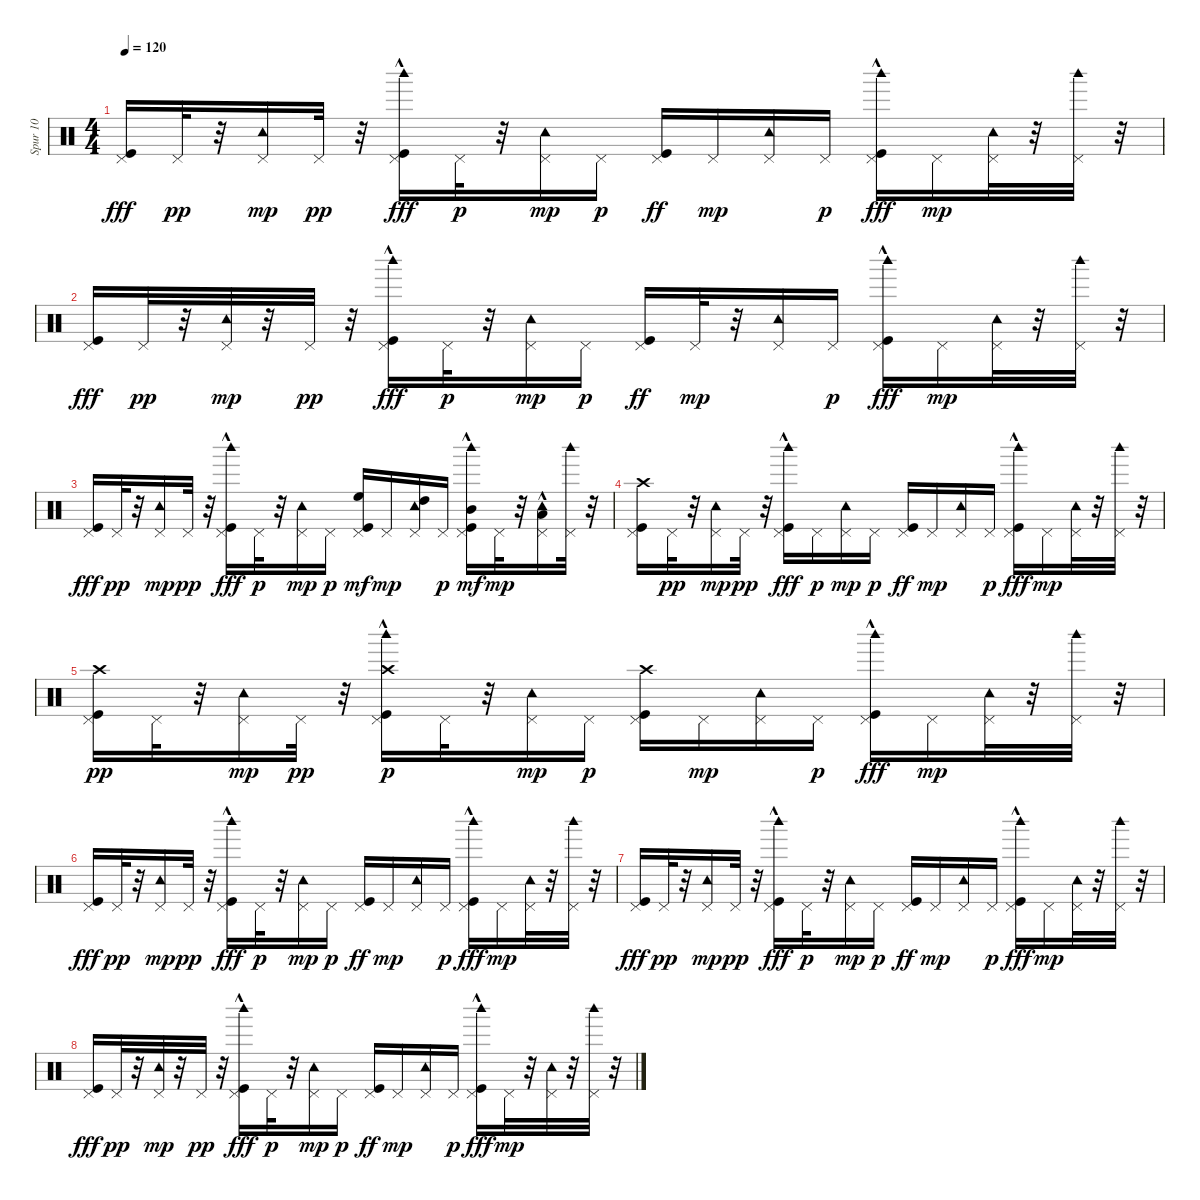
\track ("Spur 10" "Spur 10") {instrument percussion}
\staff {score}
\articulation defaults
\ts (4 4)
\tempo 120
\clef neutral
\ks c
("Pedal Hi-Hat (hit)" "Kick (hit)").16{dy fff} "Pedal Hi-Hat (hit)".32{dy pp} r.32 ("Pedal Hi-Hat (hit)" "Tambourine (hit)").16{dy mp} "Pedal Hi-Hat (hit)".32{dy pp} r.32 ("Kick (hit)" "Pedal Hi-Hat (hit)" "Woodblock high (hit)"{hac}).16{dy fff} "Pedal Hi-Hat (hit)".32{dy p} r.32 ("Pedal Hi-Hat (hit)" "Tambourine (hit)").16{dy mp} "Pedal Hi-Hat (hit)".16{dy p} ("Kick (hit)" "Pedal Hi-Hat (hit)").16{dy ff} "Pedal Hi-Hat (hit)".16{dy mp} ("Pedal Hi-Hat (hit)" "Tambourine (hit)").16 "Pedal Hi-Hat (hit)".16{dy p} ("Kick (hit)"{hac} "Pedal Hi-Hat (hit)" "Woodblock high (hit)").16{dy fff} "Pedal Hi-Hat (hit)".16{dy mp} ("Pedal Hi-Hat (hit)" "Tambourine (hit)").32 r.32 ("Pedal Hi-Hat (hit)" "Woodblock high (hit)").32 r.32 |
("Pedal Hi-Hat (hit)" "Kick (hit)").16{dy fff} "Pedal Hi-Hat (hit)".32{dy pp} r.32 ("Pedal Hi-Hat (hit)" "Tambourine (hit)").32{dy mp} r.32 "Pedal Hi-Hat (hit)".32{dy pp} r.32 ("Kick (hit)" "Pedal Hi-Hat (hit)" "Woodblock high (hit)"{hac}).16{dy fff} "Pedal Hi-Hat (hit)".32{dy p} r.32 ("Pedal Hi-Hat (hit)" "Tambourine (hit)").16{dy mp} "Pedal Hi-Hat (hit)".16{dy p} ("Kick (hit)" "Pedal Hi-Hat (hit)").16{dy ff} "Pedal Hi-Hat (hit)".32{dy mp} r.32 ("Pedal Hi-Hat (hit)" "Tambourine (hit)").16 "Pedal Hi-Hat (hit)".16{dy p} ("Kick (hit)"{hac} "Pedal Hi-Hat (hit)" "Woodblock high (hit)").16{dy fff} "Pedal Hi-Hat (hit)".16{dy mp} ("Pedal Hi-Hat (hit)" "Tambourine (hit)").32 r.32 ("Pedal Hi-Hat (hit)" "Woodblock high (hit)").32 r.32 |
("Pedal Hi-Hat (hit)" "Kick (hit)").16{dy fff} "Pedal Hi-Hat (hit)".32{dy pp} r.32 ("Pedal Hi-Hat (hit)" "Tambourine (hit)").16{dy mp} "Pedal Hi-Hat (hit)".32{dy pp} r.32 ("Kick (hit)" "Pedal Hi-Hat (hit)" "Woodblock high (hit)"{hac}).16{dy fff} "Pedal Hi-Hat (hit)".32{dy p} r.32 ("Pedal Hi-Hat (hit)" "Tambourine (hit)").16{dy mp} "Pedal Hi-Hat (hit)".16{dy p} ("Kick (hit)" "Pedal Hi-Hat (hit)" "High Floor Tom (hit)").16{dy mf} "Pedal Hi-Hat (hit)".16{dy mp} ("Pedal Hi-Hat (hit)" "Tambourine (hit)" "High Tom (hit)").16 "Pedal Hi-Hat (hit)".16{dy p} ("Kick (hit)"{hac} "Pedal Hi-Hat (hit)" "Woodblock high (hit)" "Mid Tom (hit)").16{dy mf} "Pedal Hi-Hat (hit)".32{dy mp} r.32 ("Pedal Hi-Hat (hit)" "Tambourine (hit)" "Low Tom (hit)"{hac}).16 ("Pedal Hi-Hat (hit)" "Woodblock high (hit)").32 r.32 |
("Pedal Hi-Hat (hit)" "Kick (hit)" "Crash high (hit)").16 "Pedal Hi-Hat (hit)".32{dy pp} r.32 ("Pedal Hi-Hat (hit)" "Tambourine (hit)").16{dy mp} "Pedal Hi-Hat (hit)".32{dy pp} r.32 ("Kick (hit)" "Pedal Hi-Hat (hit)" "Woodblock high (hit)"{hac}).16{dy fff} "Pedal Hi-Hat (hit)".16{dy p} ("Pedal Hi-Hat (hit)" "Tambourine (hit)").16{dy mp} "Pedal Hi-Hat (hit)".16{dy p} ("Kick (hit)" "Pedal Hi-Hat (hit)").16{dy ff} "Pedal Hi-Hat (hit)".16{dy mp} ("Pedal Hi-Hat (hit)" "Tambourine (hit)").16 "Pedal Hi-Hat (hit)".16{dy p} ("Kick (hit)"{hac} "Pedal Hi-Hat (hit)" "Woodblock high (hit)").16{dy fff} "Pedal Hi-Hat (hit)".16{dy mp} ("Pedal Hi-Hat (hit)" "Tambourine (hit)").32 r.32 ("Pedal Hi-Hat (hit)" "Woodblock high (hit)").32 r.32 |
("Pedal Hi-Hat (hit)" "Kick (hit)" "Crash high (hit)").16{dy pp} "Pedal Hi-Hat (hit)".32 r.32 ("Pedal Hi-Hat (hit)" "Tambourine (hit)").16{dy mp} "Pedal Hi-Hat (hit)".32{dy pp} r.32 ("Kick (hit)" "Pedal Hi-Hat (hit)" "Woodblock high (hit)"{hac} "Crash high (hit)").16{dy p} "Pedal Hi-Hat (hit)".32 r.32 ("Pedal Hi-Hat (hit)" "Tambourine (hit)").16{dy mp} "Pedal Hi-Hat (hit)".16{dy p} ("Kick (hit)" "Pedal Hi-Hat (hit)" "Crash high (hit)").16 "Pedal Hi-Hat (hit)".16{dy mp} ("Pedal Hi-Hat (hit)" "Tambourine (hit)").16 "Pedal Hi-Hat (hit)".16{dy p} ("Kick (hit)"{hac} "Pedal Hi-Hat (hit)" "Woodblock high (hit)").16{dy fff} "Pedal Hi-Hat (hit)".16{dy mp} ("Pedal Hi-Hat (hit)" "Tambourine (hit)").32 r.32 ("Pedal Hi-Hat (hit)" "Woodblock high (hit)").32 r.32 |
("Pedal Hi-Hat (hit)" "Kick (hit)").16{dy fff} "Pedal Hi-Hat (hit)".32{dy pp} r.32 ("Pedal Hi-Hat (hit)" "Tambourine (hit)").16{dy mp} "Pedal Hi-Hat (hit)".32{dy pp} r.32 ("Kick (hit)" "Pedal Hi-Hat (hit)" "Woodblock high (hit)"{hac}).16{dy fff} "Pedal Hi-Hat (hit)".32{dy p} r.32 ("Pedal Hi-Hat (hit)" "Tambourine (hit)").16{dy mp} "Pedal Hi-Hat (hit)".16{dy p} ("Kick (hit)" "Pedal Hi-Hat (hit)").16{dy ff} "Pedal Hi-Hat (hit)".16{dy mp} ("Pedal Hi-Hat (hit)" "Tambourine (hit)").16 "Pedal Hi-Hat (hit)".16{dy p} ("Kick (hit)"{hac} "Pedal Hi-Hat (hit)" "Woodblock high (hit)").16{dy fff} "Pedal Hi-Hat (hit)".16{dy mp} ("Pedal Hi-Hat (hit)" "Tambourine (hit)").32 r.32 ("Pedal Hi-Hat (hit)" "Woodblock high (hit)").32 r.32 |
("Pedal Hi-Hat (hit)" "Kick (hit)").16{dy fff} "Pedal Hi-Hat (hit)".32{dy pp} r.32 ("Pedal Hi-Hat (hit)" "Tambourine (hit)").16{dy mp} "Pedal Hi-Hat (hit)".32{dy pp} r.32 ("Kick (hit)" "Pedal Hi-Hat (hit)" "Woodblock high (hit)"{hac}).16{dy fff} "Pedal Hi-Hat (hit)".32{dy p} r.32 ("Pedal Hi-Hat (hit)" "Tambourine (hit)").16{dy mp} "Pedal Hi-Hat (hit)".16{dy p} ("Kick (hit)" "Pedal Hi-Hat (hit)").16{dy ff} "Pedal Hi-Hat (hit)".16{dy mp} ("Pedal Hi-Hat (hit)" "Tambourine (hit)").16 "Pedal Hi-Hat (hit)".16{dy p} ("Kick (hit)"{hac} "Pedal Hi-Hat (hit)" "Woodblock high (hit)").16{dy fff} "Pedal Hi-Hat (hit)".16{dy mp} ("Pedal Hi-Hat (hit)" "Tambourine (hit)").32 r.32 ("Pedal Hi-Hat (hit)" "Woodblock high (hit)").32 r.32 |
("Pedal Hi-Hat (hit)" "Kick (hit)").16{dy fff} "Pedal Hi-Hat (hit)".32{dy pp} r.32 ("Pedal Hi-Hat (hit)" "Tambourine (hit)").32{dy mp} r.32 "Pedal Hi-Hat (hit)".32{dy pp} r.32 ("Kick (hit)" "Pedal Hi-Hat (hit)" "Woodblock high (hit)"{hac}).16{dy fff} "Pedal Hi-Hat (hit)".32{dy p} r.32 ("Pedal Hi-Hat (hit)" "Tambourine (hit)").16{dy mp} "Pedal Hi-Hat (hit)".16{dy p} ("Kick (hit)" "Pedal Hi-Hat (hit)").16{dy ff} "Pedal Hi-Hat (hit)".16{dy mp} ("Pedal Hi-Hat (hit)" "Tambourine (hit)").16 "Pedal Hi-Hat (hit)".16{dy p} ("Kick (hit)"{hac} "Pedal Hi-Hat (hit)" "Woodblock high (hit)").16{dy fff} "Pedal Hi-Hat (hit)".32{dy mp} r.32 ("Pedal Hi-Hat (hit)" "Tambourine (hit)").32 r.32 ("Pedal Hi-Hat (hit)" "Woodblock high (hit)").32 r.32
